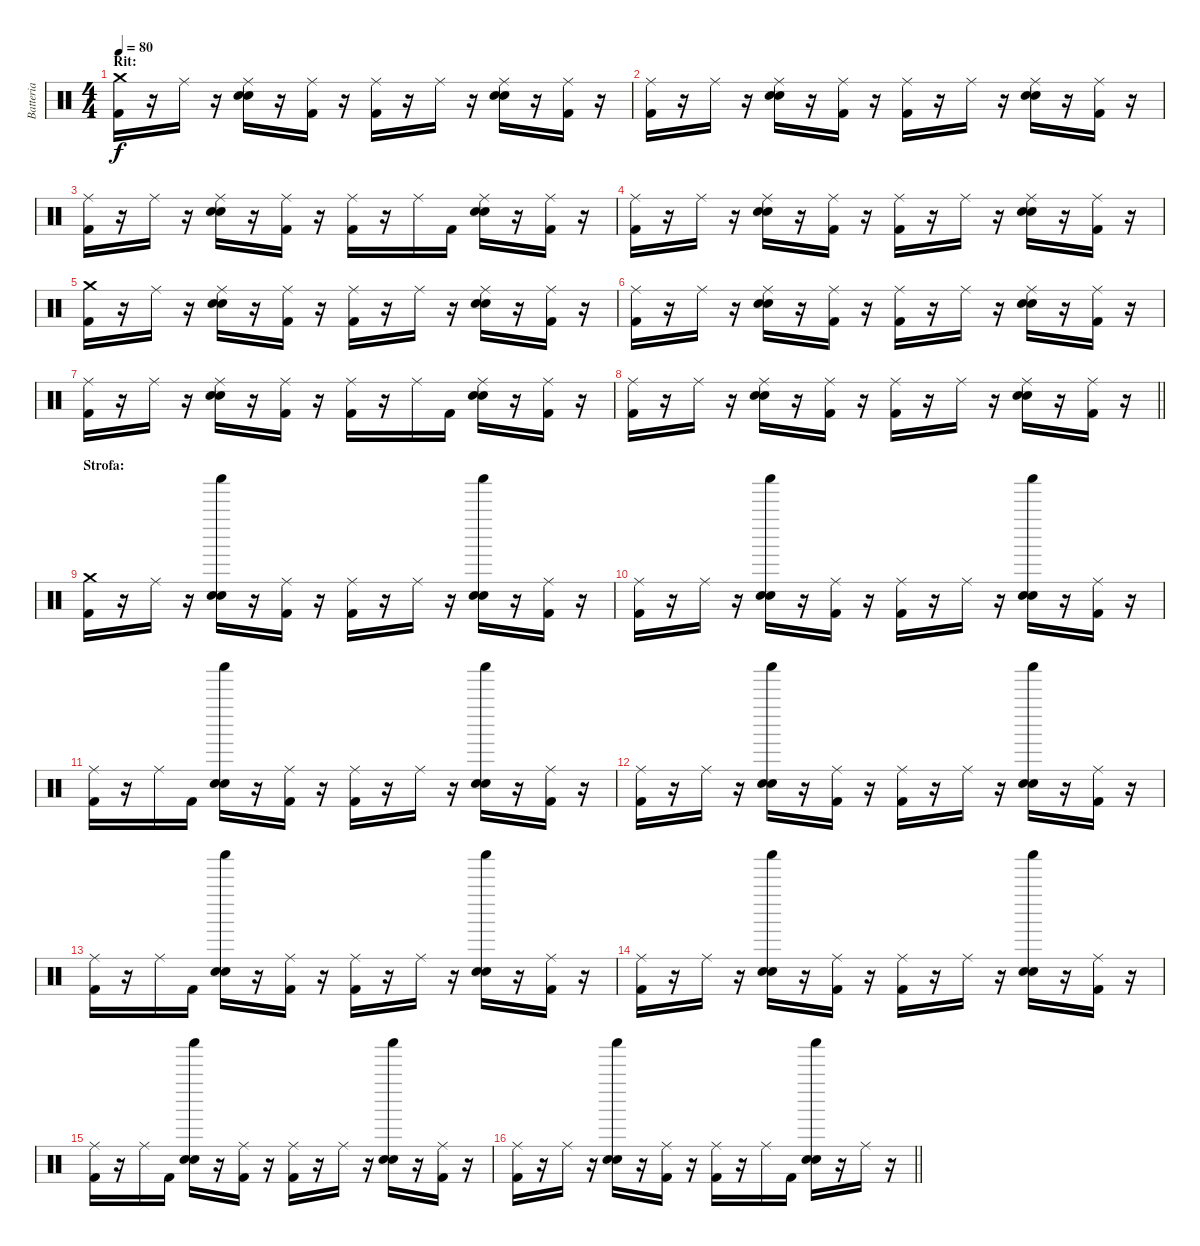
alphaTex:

\track ("Batteria" "Batteria") {instrument percussion}
\staff {score}
\articulation defaults
\ts (4 4)
\section ("" "Rit:")
\tempo 80
\clef neutral
\ks c
("Kick (hit) 2" "Crash medium (hit)").16{dy f} r.16 "Ride (middle)".16 r.16 ("Snare (hit) 2" "Snare (hit) 2" "Ride (middle)").16 r.16 ("Kick (hit) 2" "Ride (middle)").16 r.16 ("Kick (hit) 2" "Ride (middle)").16 r.16 "Ride (middle)".16 r.16 ("Snare (hit) 2" "Snare (hit) 2" "Ride (middle)").16 r.16 ("Kick (hit) 2" "Ride (middle)").16 r.16 |
("Kick (hit) 2" "Ride (middle)").16 r.16 "Ride (middle)".16 r.16 ("Snare (hit) 2" "Snare (hit) 2" "Ride (middle)").16 r.16 ("Kick (hit) 2" "Ride (middle)").16 r.16 ("Kick (hit) 2" "Ride (middle)").16 r.16 "Ride (middle)".16 r.16 ("Snare (hit) 2" "Snare (hit) 2" "Ride (middle)").16 r.16 ("Kick (hit) 2" "Ride (middle)").16 r.16 |
("Kick (hit) 2" "Ride (middle)").16 r.16 "Ride (middle)".16 r.16 ("Snare (hit) 2" "Snare (hit) 2" "Ride (middle)").16 r.16 ("Kick (hit) 2" "Ride (middle)").16 r.16 ("Kick (hit) 2" "Ride (middle)").16 r.16 "Ride (middle)".16 "Kick (hit) 2".16 ("Snare (hit) 2" "Snare (hit) 2" "Ride (middle)").16 r.16 ("Kick (hit) 2" "Ride (middle)").16 r.16 |
("Kick (hit) 2" "Ride (middle)").16 r.16 "Ride (middle)".16 r.16 ("Snare (hit) 2" "Snare (hit) 2" "Ride (middle)").16 r.16 ("Kick (hit) 2" "Ride (middle)").16 r.16 ("Kick (hit) 2" "Ride (middle)").16 r.16 "Ride (middle)".16 r.16 ("Snare (hit) 2" "Snare (hit) 2" "Ride (middle)").16 r.16 ("Kick (hit) 2" "Ride (middle)").16 r.16 |
("Kick (hit) 2" "Crash medium (hit)").16 r.16 "Ride (middle)".16 r.16 ("Snare (hit) 2" "Snare (hit) 2" "Ride (middle)").16 r.16 ("Kick (hit) 2" "Ride (middle)").16 r.16 ("Kick (hit) 2" "Ride (middle)").16 r.16 "Ride (middle)".16 r.16 ("Snare (hit) 2" "Snare (hit) 2" "Ride (middle)").16 r.16 ("Kick (hit) 2" "Ride (middle)").16 r.16 |
("Kick (hit) 2" "Ride (middle)").16 r.16 "Ride (middle)".16 r.16 ("Snare (hit) 2" "Snare (hit) 2" "Ride (middle)").16 r.16 ("Kick (hit) 2" "Ride (middle)").16 r.16 ("Kick (hit) 2" "Ride (middle)").16 r.16 "Ride (middle)".16 r.16 ("Snare (hit) 2" "Snare (hit) 2" "Ride (middle)").16 r.16 ("Kick (hit) 2" "Ride (middle)").16 r.16 |
("Kick (hit) 2" "Ride (middle)").16 r.16 "Ride (middle)".16 r.16 ("Snare (hit) 2" "Snare (hit) 2" "Ride (middle)").16 r.16 ("Kick (hit) 2" "Ride (middle)").16 r.16 ("Kick (hit) 2" "Ride (middle)").16 r.16 "Ride (middle)".16 "Kick (hit) 2".16 ("Snare (hit) 2" "Snare (hit) 2" "Ride (middle)").16 r.16 ("Kick (hit) 2" "Ride (middle)").16 r.16 |
\barLineRight lightlight
("Kick (hit) 2" "Ride (middle)").16 r.16 "Ride (middle)".16 r.16 ("Snare (hit) 2" "Snare (hit) 2" "Ride (middle)").16 r.16 ("Kick (hit) 2" "Ride (middle)").16 r.16 ("Kick (hit) 2" "Ride (middle)").16 r.16 "Ride (middle)".16 r.16 ("Snare (hit) 2" "Snare (hit) 2" "Ride (middle)").16 r.16 ("Kick (hit) 2" "Ride (middle)").16 r.16 |
\section ("" "Strofa:")
("Kick (hit) 2" "Crash medium (hit)").16 r.16 "Ride (middle)".16 r.16 ("Snare (hit) 2" "Snare (hit) 2" "Shaker (hit)").16 r.16 ("Kick (hit) 2" "Ride (middle)").16 r.16 ("Kick (hit) 2" "Ride (middle)").16 r.16 "Ride (middle)".16 r.16 ("Snare (hit) 2" "Snare (hit) 2" "Shaker (hit)").16 r.16 ("Kick (hit) 2" "Ride (middle)").16 r.16 |
("Kick (hit) 2" "Ride (middle)").16 r.16 "Ride (middle)".16 r.16 ("Snare (hit) 2" "Snare (hit) 2" "Shaker (hit)").16 r.16 ("Kick (hit) 2" "Ride (middle)").16 r.16 ("Kick (hit) 2" "Ride (middle)").16 r.16 "Ride (middle)".16 r.16 ("Snare (hit) 2" "Snare (hit) 2" "Shaker (hit)").16 r.16 ("Kick (hit) 2" "Ride (middle)").16 r.16 |
("Kick (hit) 2" "Ride (middle)").16 r.16 "Ride (middle)".16 "Kick (hit) 2".16 ("Snare (hit) 2" "Snare (hit) 2" "Shaker (hit)").16 r.16 ("Kick (hit) 2" "Ride (middle)").16 r.16 ("Kick (hit) 2" "Ride (middle)").16 r.16 "Ride (middle)".16 r.16 ("Snare (hit) 2" "Snare (hit) 2" "Shaker (hit)").16 r.16 ("Kick (hit) 2" "Ride (middle)").16 r.16 |
("Kick (hit) 2" "Ride (middle)").16 r.16 "Ride (middle)".16 r.16 ("Snare (hit) 2" "Snare (hit) 2" "Shaker (hit)").16 r.16 ("Kick (hit) 2" "Ride (middle)").16 r.16 ("Kick (hit) 2" "Ride (middle)").16 r.16 "Ride (middle)".16 r.16 ("Snare (hit) 2" "Snare (hit) 2" "Shaker (hit)").16 r.16 ("Kick (hit) 2" "Ride (middle)").16 r.16 |
("Kick (hit) 2" "Ride (middle)").16 r.16 "Ride (middle)".16 "Kick (hit) 2".16 ("Snare (hit) 2" "Snare (hit) 2" "Shaker (hit)").16 r.16 ("Kick (hit) 2" "Ride (middle)").16 r.16 ("Kick (hit) 2" "Ride (middle)").16 r.16 "Ride (middle)".16 r.16 ("Snare (hit) 2" "Snare (hit) 2" "Shaker (hit)").16 r.16 ("Kick (hit) 2" "Ride (middle)").16 r.16 |
("Kick (hit) 2" "Ride (middle)").16 r.16 "Ride (middle)".16 r.16 ("Snare (hit) 2" "Snare (hit) 2" "Shaker (hit)").16 r.16 ("Kick (hit) 2" "Ride (middle)").16 r.16 ("Kick (hit) 2" "Ride (middle)").16 r.16 "Ride (middle)".16 r.16 ("Snare (hit) 2" "Snare (hit) 2" "Shaker (hit)").16 r.16 ("Kick (hit) 2" "Ride (middle)").16 r.16 |
("Kick (hit) 2" "Ride (middle)").16 r.16 "Ride (middle)".16 "Kick (hit) 2".16 ("Snare (hit) 2" "Snare (hit) 2" "Shaker (hit)").16 r.16 ("Kick (hit) 2" "Ride (middle)").16 r.16 ("Kick (hit) 2" "Ride (middle)").16 r.16 "Ride (middle)".16 r.16 ("Snare (hit) 2" "Snare (hit) 2" "Shaker (hit)").16 r.16 ("Kick (hit) 2" "Ride (middle)").16 r.16 |
\barLineRight lightlight
("Kick (hit) 2" "Ride (middle)").16 r.16 "Ride (middle)".16 r.16 ("Snare (hit) 2" "Snare (hit) 2" "Shaker (hit)").16 r.16 ("Kick (hit) 2" "Ride (middle)").16 r.16 ("Kick (hit) 2" "Ride (middle)").16 r.16 "Ride (middle)".16 "Kick (hit) 2".16 ("Snare (hit) 2" "Snare (hit) 2" "Shaker (hit)").16 r.16 "Ride (middle)".16 r.16
